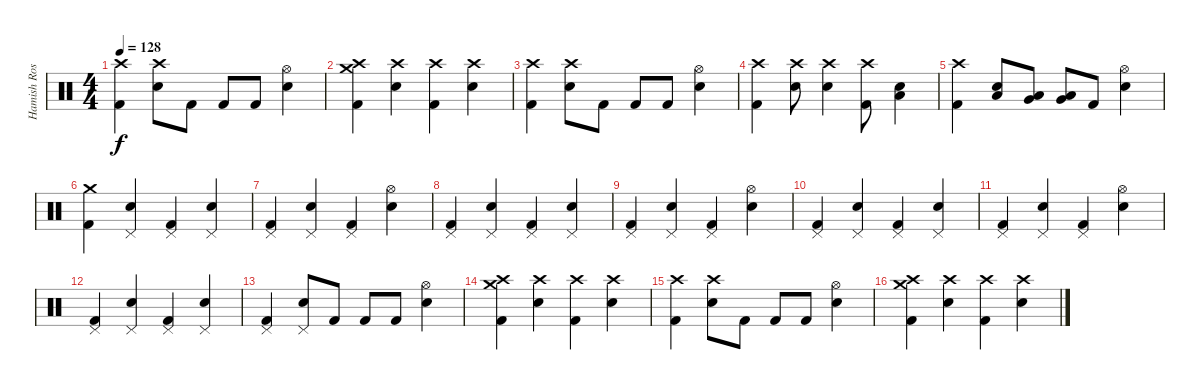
\track ("Hamish Rosser" "Hamish Ros") {instrument percussion}
\staff {score}
\articulation defaults
\ts (4 4)
\tempo 128
\clef neutral
\ks c
("Crash high (hit)" "Kick (hit) 2").4{dy f} ("Crash high (hit)" "Snare (hit) 2").8 "Kick (hit) 2".8 "Kick (hit) 2".8 "Kick (hit) 2".8 ("Hi-Hat (open)" "Snare (hit) 2").4 |
("Crash high (hit)" "Crash medium (hit)" "Kick (hit) 2").4 ("Crash high (hit)" "Snare (hit) 2").4 ("Crash high (hit)" "Kick (hit) 2").4 ("Crash high (hit)" "Snare (hit) 2").4 |
("Crash high (hit)" "Kick (hit) 2").4 ("Crash high (hit)" "Snare (hit) 2").8 "Kick (hit) 2".8 "Kick (hit) 2".8 "Kick (hit) 2".8 ("Hi-Hat (open)" "Snare (hit) 2").4 |
("Crash high (hit)" "Kick (hit) 2").4 ("Crash high (hit)" "Snare (hit) 2").8 ("Crash high (hit)" "Snare (hit) 2").4 ("Crash high (hit)" "Kick (hit) 2").8 ("Snare (hit) 2" "Low Tom (hit)").4 |
("Crash high (hit)" "Kick (hit) 2").4 ("Snare (hit) 2" "Low Tom (hit)").8 ("Very Low Tom (hit)" "Low Tom (hit)").8 ("Very Low Tom (hit)" "Low Tom (hit)").8 "Kick (hit) 2".8 ("Hi-Hat (open)" "Snare (hit) 2").4 |
("Crash medium (hit)" "Kick (hit) 2").4 ("Pedal Hi-Hat (hit)" "Snare (hit) 2").4 ("Pedal Hi-Hat (hit)" "Kick (hit) 2").4 ("Pedal Hi-Hat (hit)" "Snare (hit) 2").4 |
("Pedal Hi-Hat (hit)" "Kick (hit) 2").4 ("Pedal Hi-Hat (hit)" "Snare (hit) 2").4 ("Pedal Hi-Hat (hit)" "Kick (hit) 2").4 ("Hi-Hat (open)" "Snare (hit) 2").4 |
("Pedal Hi-Hat (hit)" "Kick (hit) 2").4 ("Pedal Hi-Hat (hit)" "Snare (hit) 2").4 ("Pedal Hi-Hat (hit)" "Kick (hit) 2").4 ("Pedal Hi-Hat (hit)" "Snare (hit) 2").4 |
("Pedal Hi-Hat (hit)" "Kick (hit) 2").4 ("Pedal Hi-Hat (hit)" "Snare (hit) 2").4 ("Pedal Hi-Hat (hit)" "Kick (hit) 2").4 ("Hi-Hat (open)" "Snare (hit) 2").4 |
("Pedal Hi-Hat (hit)" "Kick (hit) 2").4 ("Pedal Hi-Hat (hit)" "Snare (hit) 2").4 ("Pedal Hi-Hat (hit)" "Kick (hit) 2").4 ("Pedal Hi-Hat (hit)" "Snare (hit) 2").4 |
("Pedal Hi-Hat (hit)" "Kick (hit) 2").4 ("Pedal Hi-Hat (hit)" "Snare (hit) 2").4 ("Pedal Hi-Hat (hit)" "Kick (hit) 2").4 ("Hi-Hat (open)" "Snare (hit) 2").4 |
("Pedal Hi-Hat (hit)" "Kick (hit) 2").4 ("Pedal Hi-Hat (hit)" "Snare (hit) 2").4 ("Pedal Hi-Hat (hit)" "Kick (hit) 2").4 ("Pedal Hi-Hat (hit)" "Snare (hit) 2").4 |
("Pedal Hi-Hat (hit)" "Kick (hit) 2").4 ("Pedal Hi-Hat (hit)" "Snare (hit) 2").8 "Kick (hit) 2".8 "Kick (hit) 2".8 "Kick (hit) 2".8 ("Hi-Hat (open)" "Snare (hit) 2").4 |
("Crash high (hit)" "Crash medium (hit)" "Kick (hit) 2").4 ("Crash high (hit)" "Snare (hit) 2").4 ("Crash high (hit)" "Kick (hit) 2").4 ("Crash high (hit)" "Snare (hit) 2").4 |
("Crash high (hit)" "Kick (hit) 2").4 ("Crash high (hit)" "Snare (hit) 2").8 "Kick (hit) 2".8 "Kick (hit) 2".8 "Kick (hit) 2".8 ("Hi-Hat (open)" "Snare (hit) 2").4 |
("Crash high (hit)" "Crash medium (hit)" "Kick (hit) 2").4 ("Crash high (hit)" "Snare (hit) 2").4 ("Crash high (hit)" "Kick (hit) 2").4 ("Crash high (hit)" "Snare (hit) 2").4
